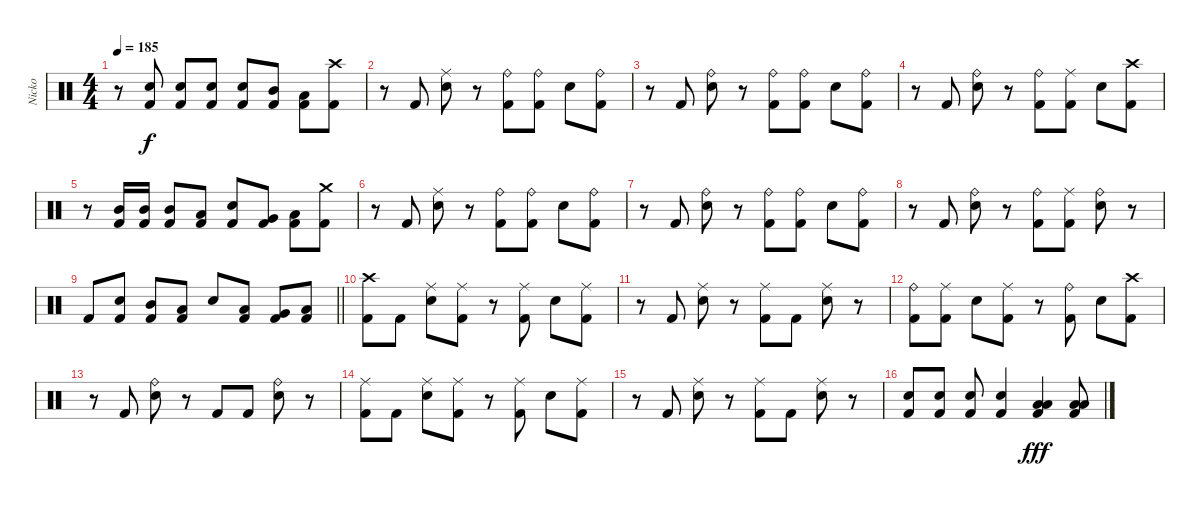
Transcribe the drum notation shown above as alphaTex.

\track ("Nicko" "Nicko") {instrument percussion}
\staff {score}
\articulation defaults
\ts (4 4)
\tempo 185
\clef neutral
\ks c
r.8{dy f} ("Snare (hit) 2" "Kick (hit) 2").8 ("Snare (hit) 2" "Kick (hit) 2").8 ("Snare (hit) 2" "Kick (hit) 2").8 ("Snare (hit) 2" "Kick (hit) 2").8 ("Mid Tom (hit)" "Kick (hit) 2").8 ("Low Tom (hit)" "Kick (hit) 2").8 ("Crash high (hit)" "Kick (hit) 2").8 |
r.8 "Kick (hit) 2".8 ("Ride (middle)" "Snare (hit) 2").8 r.8 ("Ride (bell)" "Kick (hit) 2").8 ("Ride (bell)" "Kick (hit) 2").8 "Snare (hit) 2".8 ("Ride (bell)" "Kick (hit) 2").8 |
r.8 "Kick (hit) 2".8 ("Ride (bell)" "Snare (hit) 2").8 r.8 ("Ride (bell)" "Kick (hit) 2").8 ("Ride (bell)" "Kick (hit) 2").8 "Snare (hit) 2".8 ("Ride (bell)" "Kick (hit) 2").8 |
r.8 "Kick (hit) 2".8 ("Ride (bell)" "Snare (hit) 2").8 r.8 ("Ride (bell)" "Kick (hit) 2").8 ("Ride (middle)" "Kick (hit) 2").8 "Snare (hit) 2".8 ("Crash high (hit)" "Kick (hit) 2").8 |
r.8 ("Mid Tom (hit)" "Kick (hit) 2").16 ("Mid Tom (hit)" "Kick (hit) 2").16 ("Mid Tom (hit)" "Kick (hit) 2").8 ("Low Tom (hit)" "Kick (hit) 2").8 ("Snare (hit) 2" "Kick (hit) 2").8 ("Very Low Tom (hit)" "Kick (hit) 2").8 ("Low Floor Tom (hit)" "Kick (hit) 2").8 ("Crash medium (hit)" "Kick (hit) 2").8 |
r.8 "Kick (hit) 2".8 ("Ride (middle)" "Snare (hit) 2").8 r.8 ("Ride (bell)" "Kick (hit) 2").8 ("Ride (bell)" "Kick (hit) 2").8 "Snare (hit) 2".8 ("Ride (bell)" "Kick (hit) 2").8 |
r.8 "Kick (hit) 2".8 ("Ride (bell)" "Snare (hit) 2").8 r.8 ("Ride (bell)" "Kick (hit) 2").8 ("Ride (bell)" "Kick (hit) 2").8 "Snare (hit) 2".8 ("Ride (bell)" "Kick (hit) 2").8 |
r.8 "Kick (hit) 2".8 ("Ride (bell)" "Snare (hit) 2").8 r.8 ("Ride (bell)" "Kick (hit) 2").8 ("Ride (middle)" "Kick (hit) 2").8 ("Ride (bell)" "Snare (hit) 2").8 r.8 |
\barLineRight lightlight "Kick (hit) 2".8
("Snare (hit) 2" "Kick (hit) 2").8 ("Mid Tom (hit)" "Kick (hit) 2").8 ("Low Tom (hit)" "Kick (hit) 2").8 "Snare (hit) 2".8 ("Low Tom (hit)" "Kick (hit) 2").8 ("Very Low Tom (hit)" "Kick (hit) 2").8 ("Low Floor Tom (hit)" "Kick (hit) 2").8 |
("Crash high (hit)" "Kick (hit) 2").8 "Kick (hit) 2".8 ("Ride (middle)" "Snare (hit) 2").8 ("Ride (middle)" "Kick (hit) 2").8 r.8 ("Ride (middle)" "Kick (hit) 2").8 "Snare (hit) 2".8 ("Ride (middle)" "Kick (hit) 2").8 |
r.8 "Kick (hit) 2".8 ("Ride (middle)" "Snare (hit) 2").8 r.8 ("Ride (middle)" "Kick (hit) 2").8 "Kick (hit) 2".8 ("Ride (middle)" "Snare (hit) 2").8 r.8 |
("Ride (bell)" "Kick (hit) 2").8 ("Ride (middle)" "Kick (hit) 2").8 "Snare (hit) 2".8 ("Ride (middle)" "Kick (hit) 2").8 r.8 ("Ride (bell)" "Kick (hit) 2").8 "Snare (hit) 2".8 ("Crash high (hit)" "Kick (hit) 2").8 |
r.8 "Kick (hit) 2".8 ("Ride (bell)" "Snare (hit) 2").8 r.8 "Kick (hit) 2".8 "Kick (hit) 2".8 ("Ride (bell)" "Snare (hit) 2").8 r.8 |
("Ride (middle)" "Kick (hit) 2").8 "Kick (hit) 2".8 ("Ride (middle)" "Snare (hit) 2").8 ("Ride (middle)" "Kick (hit) 2").8 r.8 ("Ride (middle)" "Kick (hit) 2").8 "Snare (hit) 2".8 ("Ride (middle)" "Kick (hit) 2").8 |
r.8 "Kick (hit) 2".8 ("Ride (middle)" "Snare (hit) 2").8 r.8 ("Ride (middle)" "Kick (hit) 2").8 "Kick (hit) 2".8 ("Ride (middle)" "Snare (hit) 2").8 r.8 |
("Snare (hit) 2" "Kick (hit) 2").8 ("Snare (hit) 2" "Kick (hit) 2").8 ("Snare (hit) 2" "Kick (hit) 2").8 ("Snare (hit) 2" "Kick (hit) 2").4 ("Low Tom (hit)" "Low Floor Tom (hit)" "Kick (hit) 2").4{dy fff} ("Low Tom (hit)" "Low Floor Tom (hit)" "Kick (hit) 2").8
